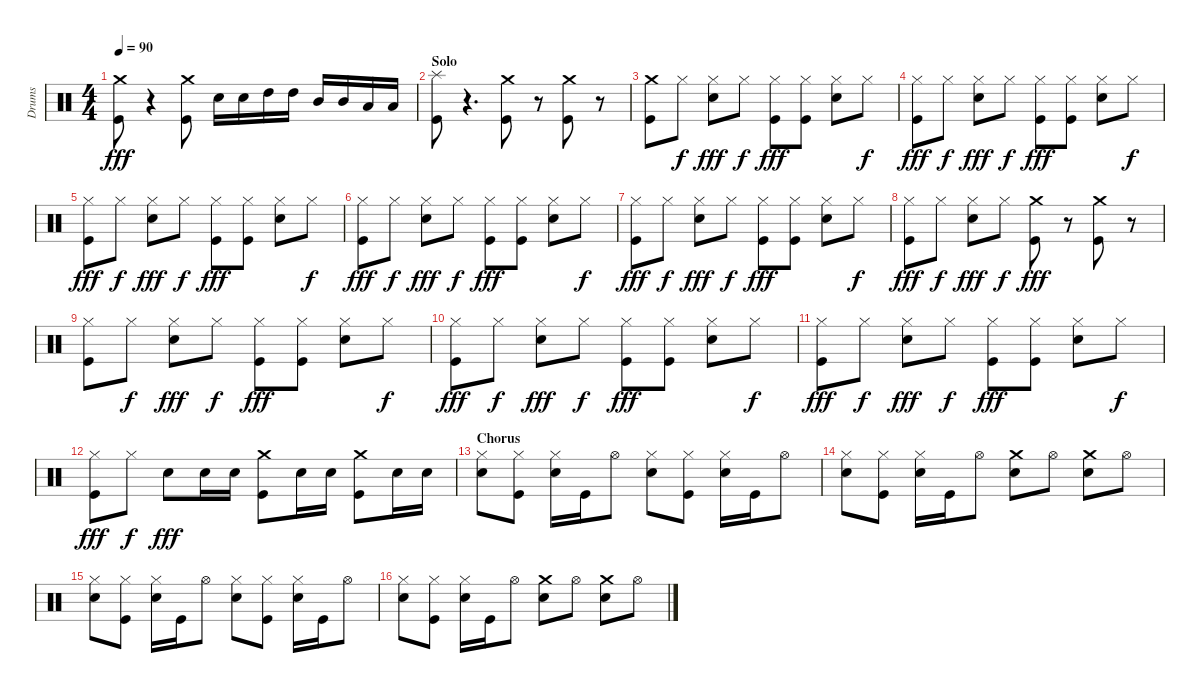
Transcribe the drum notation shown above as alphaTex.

\track ("Drums" "Drums") {instrument percussion}
\staff {score}
\articulation defaults
\ts (4 4)
\tempo 90
\clef neutral
\ks c
("Crash medium (hit)" "Kick (hit)").8{dy fff} r.4 ("Crash medium (hit)" "Kick (hit)").8 "Snare (hit) 2".16 "Snare (hit) 2".16 "High Tom (hit)".16 "High Tom (hit)".16 "Mid Tom (hit)".16 "Mid Tom (hit)".16 "Low Tom (hit)".16 "Low Tom (hit)".16 |
\section ("" "Solo")
("Splash (hit)" "Kick (hit)").8 r.4{d} ("Crash medium (hit)" "Kick (hit)").8 r.8 ("Crash medium (hit)" "Kick (hit)").8 r.8 |
("Crash medium (hit)" "Kick (hit)").8 "Hi-Hat (closed)".8{dy f} ("Hi-Hat (closed)" "Snare (hit) 2").8{dy fff} "Hi-Hat (closed)".8{dy f} ("Hi-Hat (closed)" "Kick (hit)").8{dy fff} ("Hi-Hat (closed)" "Kick (hit)").8 ("Hi-Hat (closed)" "Snare (hit) 2").8 "Hi-Hat (closed)".8{dy f} |
("Hi-Hat (closed)" "Kick (hit)").8{dy fff} "Hi-Hat (closed)".8{dy f} ("Hi-Hat (closed)" "Snare (hit) 2").8{dy fff} "Hi-Hat (closed)".8{dy f} ("Hi-Hat (closed)" "Kick (hit)").8{dy fff} ("Hi-Hat (closed)" "Kick (hit)").8 ("Hi-Hat (closed)" "Snare (hit) 2").8 "Hi-Hat (closed)".8{dy f} |
("Hi-Hat (closed)" "Kick (hit)").8{dy fff} "Hi-Hat (closed)".8{dy f} ("Hi-Hat (closed)" "Snare (hit) 2").8{dy fff} "Hi-Hat (closed)".8{dy f} ("Hi-Hat (closed)" "Kick (hit)").8{dy fff} ("Hi-Hat (closed)" "Kick (hit)").8 ("Hi-Hat (closed)" "Snare (hit) 2").8 "Hi-Hat (closed)".8{dy f} |
("Hi-Hat (closed)" "Kick (hit)").8{dy fff} "Hi-Hat (closed)".8{dy f} ("Hi-Hat (closed)" "Snare (hit) 2").8{dy fff} "Hi-Hat (closed)".8{dy f} ("Hi-Hat (closed)" "Kick (hit)").8{dy fff} ("Hi-Hat (closed)" "Kick (hit)").8 ("Hi-Hat (closed)" "Snare (hit) 2").8 "Hi-Hat (closed)".8{dy f} |
("Hi-Hat (closed)" "Kick (hit)").8{dy fff} "Hi-Hat (closed)".8{dy f} ("Hi-Hat (closed)" "Snare (hit) 2").8{dy fff} "Hi-Hat (closed)".8{dy f} ("Hi-Hat (closed)" "Kick (hit)").8{dy fff} ("Hi-Hat (closed)" "Kick (hit)").8 ("Hi-Hat (closed)" "Snare (hit) 2").8 "Hi-Hat (closed)".8{dy f} |
("Hi-Hat (closed)" "Kick (hit)").8{dy fff} "Hi-Hat (closed)".8{dy f} ("Hi-Hat (closed)" "Snare (hit) 2").8{dy fff} "Hi-Hat (closed)".8{dy f} ("Crash medium (hit)" "Kick (hit)").8{dy fff} r.8 ("Crash medium (hit)" "Kick (hit)").8 r.8 |
("Hi-Hat (closed)" "Kick (hit)").8 "Hi-Hat (closed)".8{dy f} ("Hi-Hat (closed)" "Snare (hit) 2").8{dy fff} "Hi-Hat (closed)".8{dy f} ("Hi-Hat (closed)" "Kick (hit)").8{dy fff} ("Hi-Hat (closed)" "Kick (hit)").8 ("Hi-Hat (closed)" "Snare (hit) 2").8 "Hi-Hat (closed)".8{dy f} |
("Hi-Hat (closed)" "Kick (hit)").8{dy fff} "Hi-Hat (closed)".8{dy f} ("Hi-Hat (closed)" "Snare (hit) 2").8{dy fff} "Hi-Hat (closed)".8{dy f} ("Hi-Hat (closed)" "Kick (hit)").8{dy fff} ("Hi-Hat (closed)" "Kick (hit)").8 ("Hi-Hat (closed)" "Snare (hit) 2").8 "Hi-Hat (closed)".8{dy f} |
("Hi-Hat (closed)" "Kick (hit)").8{dy fff} "Hi-Hat (closed)".8{dy f} ("Hi-Hat (closed)" "Snare (hit) 2").8{dy fff} "Hi-Hat (closed)".8{dy f} ("Hi-Hat (closed)" "Kick (hit)").8{dy fff} ("Hi-Hat (closed)" "Kick (hit)").8 ("Hi-Hat (closed)" "Snare (hit) 2").8 "Hi-Hat (closed)".8{dy f} |
("Hi-Hat (closed)" "Kick (hit)").8{dy fff} "Hi-Hat (closed)".8{dy f} "Snare (hit) 2".8{dy fff} "Snare (hit) 2".16 "Snare (hit) 2".16 ("Crash medium (hit)" "Kick (hit)").8 "Snare (hit) 2".16 "Snare (hit) 2".16 ("Crash medium (hit)" "Kick (hit)").8 "Snare (hit) 2".16 "Snare (hit) 2".16 |
\section ("" "Chorus")
("Hi-Hat (closed)" "Snare (hit) 2").8 ("Hi-Hat (closed)" "Kick (hit)").8 ("Hi-Hat (closed)" "Snare (hit) 2").16 "Kick (hit)".16 "Hi-Hat (open)".8 ("Hi-Hat (closed)" "Snare (hit) 2").8 ("Hi-Hat (closed)" "Kick (hit)").8 ("Hi-Hat (closed)" "Snare (hit) 2").16 "Kick (hit)".16 "Hi-Hat (open)".8 |
("Hi-Hat (closed)" "Snare (hit) 2").8 ("Hi-Hat (closed)" "Kick (hit)").8 ("Hi-Hat (closed)" "Snare (hit) 2").16 "Kick (hit)".16 "Hi-Hat (open)".8 ("Snare (hit) 2" "Crash medium (hit)").8 "Hi-Hat (open)".8 ("Snare (hit) 2" "Crash medium (hit)").8 "Hi-Hat (open)".8 |
("Hi-Hat (closed)" "Snare (hit) 2").8 ("Hi-Hat (closed)" "Kick (hit)").8 ("Hi-Hat (closed)" "Snare (hit) 2").16 "Kick (hit)".16 "Hi-Hat (open)".8 ("Hi-Hat (closed)" "Snare (hit) 2").8 ("Hi-Hat (closed)" "Kick (hit)").8 ("Hi-Hat (closed)" "Snare (hit) 2").16 "Kick (hit)".16 "Hi-Hat (open)".8 |
("Hi-Hat (closed)" "Snare (hit) 2").8 ("Hi-Hat (closed)" "Kick (hit)").8 ("Hi-Hat (closed)" "Snare (hit) 2").16 "Kick (hit)".16 "Hi-Hat (open)".8 ("Snare (hit) 2" "Crash medium (hit)").8 "Hi-Hat (open)".8 ("Snare (hit) 2" "Crash medium (hit)").8 "Hi-Hat (open)".8
